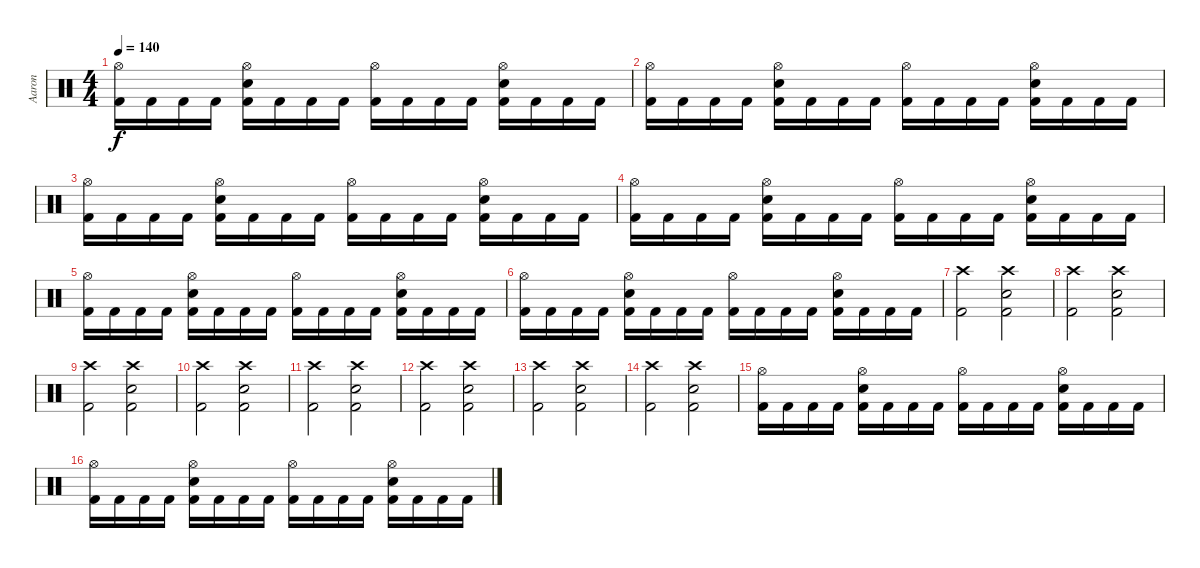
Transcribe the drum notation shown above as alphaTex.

\track ("Aaron" "Aaron") {instrument percussion}
\staff {score}
\articulation defaults
\ts (4 4)
\tempo 140
\clef neutral
\ks c
("Hi-Hat (open)" "Kick (hit) 2").16{dy f} "Kick (hit) 2".16 "Kick (hit) 2".16 "Kick (hit) 2".16 ("Hi-Hat (open)" "Snare (hit) 2" "Kick (hit) 2").16 "Kick (hit) 2".16 "Kick (hit) 2".16 "Kick (hit) 2".16 ("Hi-Hat (open)" "Kick (hit) 2").16 "Kick (hit) 2".16 "Kick (hit) 2".16 "Kick (hit) 2".16 ("Hi-Hat (open)" "Snare (hit) 2" "Kick (hit) 2").16 "Kick (hit) 2".16 "Kick (hit) 2".16 "Kick (hit) 2".16 |
("Hi-Hat (open)" "Kick (hit) 2").16 "Kick (hit) 2".16 "Kick (hit) 2".16 "Kick (hit) 2".16 ("Hi-Hat (open)" "Snare (hit) 2" "Kick (hit) 2").16 "Kick (hit) 2".16 "Kick (hit) 2".16 "Kick (hit) 2".16 ("Hi-Hat (open)" "Kick (hit) 2").16 "Kick (hit) 2".16 "Kick (hit) 2".16 "Kick (hit) 2".16 ("Hi-Hat (open)" "Snare (hit) 2" "Kick (hit) 2").16 "Kick (hit) 2".16 "Kick (hit) 2".16 "Kick (hit) 2".16 |
("Hi-Hat (open)" "Kick (hit) 2").16 "Kick (hit) 2".16 "Kick (hit) 2".16 "Kick (hit) 2".16 ("Hi-Hat (open)" "Snare (hit) 2" "Kick (hit) 2").16 "Kick (hit) 2".16 "Kick (hit) 2".16 "Kick (hit) 2".16 ("Hi-Hat (open)" "Kick (hit) 2").16 "Kick (hit) 2".16 "Kick (hit) 2".16 "Kick (hit) 2".16 ("Hi-Hat (open)" "Snare (hit) 2" "Kick (hit) 2").16 "Kick (hit) 2".16 "Kick (hit) 2".16 "Kick (hit) 2".16 |
("Hi-Hat (open)" "Kick (hit) 2").16 "Kick (hit) 2".16 "Kick (hit) 2".16 "Kick (hit) 2".16 ("Hi-Hat (open)" "Snare (hit) 2" "Kick (hit) 2").16 "Kick (hit) 2".16 "Kick (hit) 2".16 "Kick (hit) 2".16 ("Hi-Hat (open)" "Kick (hit) 2").16 "Kick (hit) 2".16 "Kick (hit) 2".16 "Kick (hit) 2".16 ("Hi-Hat (open)" "Snare (hit) 2" "Kick (hit) 2").16 "Kick (hit) 2".16 "Kick (hit) 2".16 "Kick (hit) 2".16 |
("Hi-Hat (open)" "Kick (hit) 2").16 "Kick (hit) 2".16 "Kick (hit) 2".16 "Kick (hit) 2".16 ("Hi-Hat (open)" "Snare (hit) 2" "Kick (hit) 2").16 "Kick (hit) 2".16 "Kick (hit) 2".16 "Kick (hit) 2".16 ("Hi-Hat (open)" "Kick (hit) 2").16 "Kick (hit) 2".16 "Kick (hit) 2".16 "Kick (hit) 2".16 ("Hi-Hat (open)" "Snare (hit) 2" "Kick (hit) 2").16 "Kick (hit) 2".16 "Kick (hit) 2".16 "Kick (hit) 2".16 |
("Hi-Hat (open)" "Kick (hit) 2").16 "Kick (hit) 2".16 "Kick (hit) 2".16 "Kick (hit) 2".16 ("Hi-Hat (open)" "Snare (hit) 2" "Kick (hit) 2").16 "Kick (hit) 2".16 "Kick (hit) 2".16 "Kick (hit) 2".16 ("Hi-Hat (open)" "Kick (hit) 2").16 "Kick (hit) 2".16 "Kick (hit) 2".16 "Kick (hit) 2".16 ("Hi-Hat (open)" "Snare (hit) 2" "Kick (hit) 2").16 "Kick (hit) 2".16 "Kick (hit) 2".16 "Kick (hit) 2".16 |
("Kick (hit) 2" "Crash high (hit)").2 ("Kick (hit) 2" "Snare (hit) 2" "Crash high (hit)").2 |
("Kick (hit) 2" "Crash high (hit)").2 ("Kick (hit) 2" "Snare (hit) 2" "Crash high (hit)").2 |
("Kick (hit) 2" "Crash high (hit)").2 ("Kick (hit) 2" "Snare (hit) 2" "Crash high (hit)").2 |
("Kick (hit) 2" "Crash high (hit)").2 ("Kick (hit) 2" "Snare (hit) 2" "Crash high (hit)").2 |
("Kick (hit) 2" "Crash high (hit)").2 ("Kick (hit) 2" "Snare (hit) 2" "Crash high (hit)").2 |
("Kick (hit) 2" "Crash high (hit)").2 ("Kick (hit) 2" "Snare (hit) 2" "Crash high (hit)").2 |
("Kick (hit) 2" "Crash high (hit)").2 ("Kick (hit) 2" "Snare (hit) 2" "Crash high (hit)").2 |
("Kick (hit) 2" "Crash high (hit)").2 ("Kick (hit) 2" "Snare (hit) 2" "Crash high (hit)").2 |
("Hi-Hat (open)" "Kick (hit) 2").16 "Kick (hit) 2".16 "Kick (hit) 2".16 "Kick (hit) 2".16 ("Hi-Hat (open)" "Snare (hit) 2" "Kick (hit) 2").16 "Kick (hit) 2".16 "Kick (hit) 2".16 "Kick (hit) 2".16 ("Hi-Hat (open)" "Kick (hit) 2").16 "Kick (hit) 2".16 "Kick (hit) 2".16 "Kick (hit) 2".16 ("Hi-Hat (open)" "Snare (hit) 2" "Kick (hit) 2").16 "Kick (hit) 2".16 "Kick (hit) 2".16 "Kick (hit) 2".16 |
("Hi-Hat (open)" "Kick (hit) 2").16 "Kick (hit) 2".16 "Kick (hit) 2".16 "Kick (hit) 2".16 ("Hi-Hat (open)" "Snare (hit) 2" "Kick (hit) 2").16 "Kick (hit) 2".16 "Kick (hit) 2".16 "Kick (hit) 2".16 ("Hi-Hat (open)" "Kick (hit) 2").16 "Kick (hit) 2".16 "Kick (hit) 2".16 "Kick (hit) 2".16 ("Hi-Hat (open)" "Snare (hit) 2" "Kick (hit) 2").16 "Kick (hit) 2".16 "Kick (hit) 2".16 "Kick (hit) 2".16
